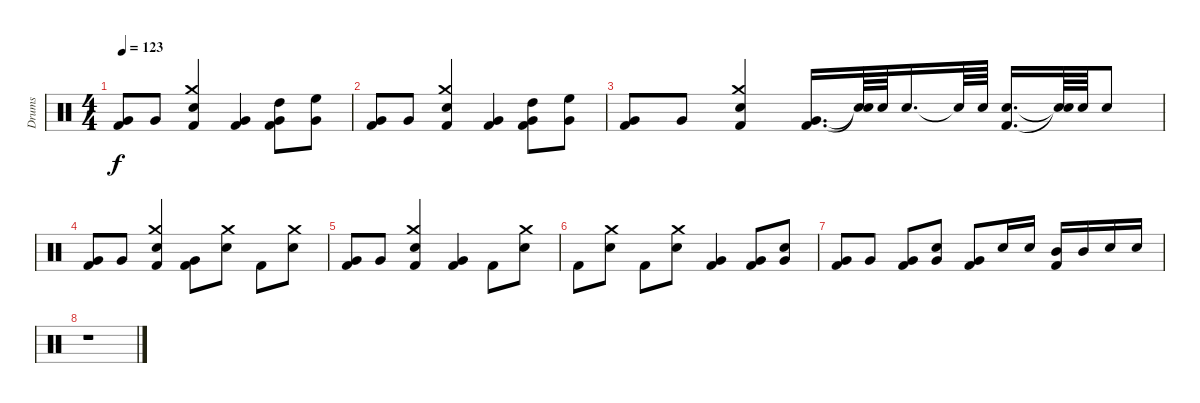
\track ("Drums" "Drums") {instrument percussion}
\staff {score}
\articulation defaults
\ts (4 4)
\tempo 123
\clef neutral
\ks c
("Very Low Tom (hit)" "Kick (hit) 2").8{dy f} "Very Low Tom (hit)".8 ("Crash medium (hit)" "Snare (hit) 2" "Kick (hit) 2").4 ("Very Low Tom (hit)" "Kick (hit) 2").4 ("High Tom (hit)" "Very Low Tom (hit)" "Kick (hit) 2").8 ("High Floor Tom (hit)" "Very Low Tom (hit)").8 |
("Very Low Tom (hit)" "Kick (hit) 2").8 "Very Low Tom (hit)".8 ("Crash medium (hit)" "Snare (hit) 2" "Kick (hit) 2").4 ("Very Low Tom (hit)" "Kick (hit) 2").4 ("High Tom (hit)" "Very Low Tom (hit)" "Kick (hit) 2").8 ("High Floor Tom (hit)" "Very Low Tom (hit)").8 |
("Very Low Tom (hit)" "Kick (hit) 2").8 "Very Low Tom (hit)".8 ("Crash medium (hit)" "Snare (hit) 2" "Kick (hit) 2").4 ("Very Low Tom (hit)" "Kick (hit) 2").16{d} ("Snare (hit)"{t} "Snare (hit)"{t}).64 "Snare (hit) 2".64 "Snare (hit) 2".16{d} "Snare (hit)"{t}.64 "Snare (hit) 2".64 ("Snare (hit) 2" "Kick (hit) 2").16{d} ("Snare (hit)"{t} "Snare (hit)"{t}).64 "Snare (hit) 2".64 "Snare (hit) 2".8 |
("Very Low Tom (hit)" "Kick (hit) 2").8 "Very Low Tom (hit)".8 ("Snare (hit) 2" "Crash medium (hit)" "Kick (hit) 2").4 ("Very Low Tom (hit)" "Kick (hit) 2").8 ("Crash medium (hit)" "Snare (hit) 2").8 "Kick (hit) 2".8 ("Crash medium (hit)" "Snare (hit) 2").8 |
("Very Low Tom (hit)" "Kick (hit) 2").8 "Very Low Tom (hit)".8 ("Crash medium (hit)" "Snare (hit) 2" "Kick (hit) 2").4 ("Very Low Tom (hit)" "Kick (hit) 2").4 "Kick (hit) 2".8 ("Crash medium (hit)" "Snare (hit) 2").8 |
"Kick (hit) 2".8 ("Snare (hit) 2" "Crash medium (hit)").8 "Kick (hit) 2".8 ("Snare (hit) 2" "Crash medium (hit)").8 ("Very Low Tom (hit)" "Kick (hit) 2").4 ("Very Low Tom (hit)" "Kick (hit) 2").8 ("Snare (hit) 2" "Very Low Tom (hit)").8 |
("Very Low Tom (hit)" "Kick (hit) 2").8 "Very Low Tom (hit)".8 ("Very Low Tom (hit)" "Kick (hit) 2").8 ("Snare (hit) 2" "Very Low Tom (hit)").8 ("Very Low Tom (hit)" "Kick (hit) 2").8 "Snare (hit) 2".16 "Snare (hit) 2".16 ("Mid Tom (hit)" "Kick (hit) 2").16 "Mid Tom (hit)".16 "Snare (hit) 2".16 "Snare (hit) 2".16 |
r.1
